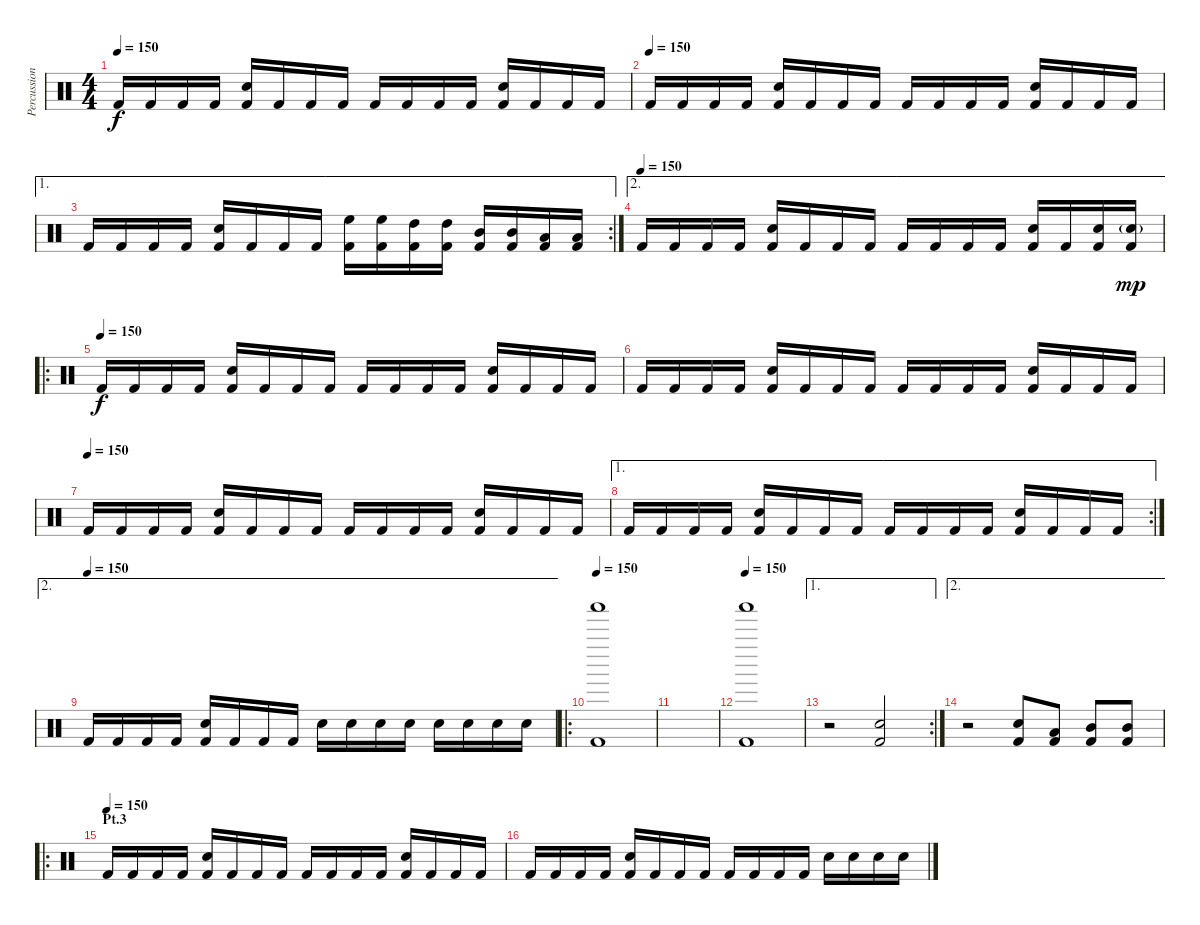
\track ("Percussion" "Percussion") {instrument percussion}
\staff {score}
\articulation defaults
\ts (4 4)
\tempo 150
\clef neutral
\ks c "Kick (hit) 2".16{dy f} "Kick (hit) 2".16 "Kick (hit) 2".16 "Kick (hit) 2".16
("Snare (hit) 2" "Kick (hit) 2").16 "Kick (hit) 2".16 "Kick (hit) 2".16 "Kick (hit) 2".16 "Kick (hit) 2".16 "Kick (hit) 2".16 "Kick (hit) 2".16 "Kick (hit) 2".16 ("Snare (hit) 2" "Kick (hit) 2").16 "Kick (hit) 2".16 "Kick (hit) 2".16 "Kick (hit) 2".16 |
\tempo (150)
"Kick (hit) 2".16 "Kick (hit) 2".16 "Kick (hit) 2".16 "Kick (hit) 2".16 ("Snare (hit) 2" "Kick (hit) 2").16 "Kick (hit) 2".16 "Kick (hit) 2".16 "Kick (hit) 2".16 "Kick (hit) 2".16 "Kick (hit) 2".16 "Kick (hit) 2".16 "Kick (hit) 2".16 ("Snare (hit) 2" "Kick (hit) 2").16 "Kick (hit) 2".16 "Kick (hit) 2".16 "Kick (hit) 2".16 |
\ae 1
\rc 2 "Kick (hit) 2".16 "Kick (hit) 2".16 "Kick (hit) 2".16 "Kick (hit) 2".16
("Snare (hit) 2" "Kick (hit) 2").16 "Kick (hit) 2".16 "Kick (hit) 2".16 "Kick (hit) 2".16 ("High Floor Tom (hit)" "Kick (hit) 2").16 ("High Floor Tom (hit)" "Kick (hit) 2").16 ("High Tom (hit)" "Kick (hit) 2").16 ("High Tom (hit)" "Kick (hit) 2").16 ("Mid Tom (hit)" "Kick (hit) 2").16 ("Mid Tom (hit)" "Kick (hit) 2").16 ("Low Tom (hit)" "Kick (hit) 2").16 ("Low Tom (hit)" "Kick (hit) 2").16 |
\ae 2
\tempo (150)
"Kick (hit) 2".16 "Kick (hit) 2".16 "Kick (hit) 2".16 "Kick (hit) 2".16 ("Snare (hit) 2" "Kick (hit) 2").16 "Kick (hit) 2".16 "Kick (hit) 2".16 "Kick (hit) 2".16 "Kick (hit) 2".16 "Kick (hit) 2".16 "Kick (hit) 2".16 "Kick (hit) 2".16 ("Snare (hit) 2" "Kick (hit) 2").16 "Kick (hit) 2".16 ("Snare (hit) 2" "Kick (hit) 2").16 ("Snare (hit) 2"{g} "Kick (hit) 2").16{dy mp} |
\ro
\tempo (150)
"Kick (hit) 2".16{dy f} "Kick (hit) 2".16 "Kick (hit) 2".16 "Kick (hit) 2".16 ("Snare (hit) 2" "Kick (hit) 2").16 "Kick (hit) 2".16 "Kick (hit) 2".16 "Kick (hit) 2".16 "Kick (hit) 2".16 "Kick (hit) 2".16 "Kick (hit) 2".16 "Kick (hit) 2".16 ("Snare (hit) 2" "Kick (hit) 2").16 "Kick (hit) 2".16 "Kick (hit) 2".16 "Kick (hit) 2".16 |
"Kick (hit) 2".16 "Kick (hit) 2".16 "Kick (hit) 2".16 "Kick (hit) 2".16 ("Snare (hit) 2" "Kick (hit) 2").16 "Kick (hit) 2".16 "Kick (hit) 2".16 "Kick (hit) 2".16 "Kick (hit) 2".16 "Kick (hit) 2".16 "Kick (hit) 2".16 "Kick (hit) 2".16 ("Snare (hit) 2" "Kick (hit) 2").16 "Kick (hit) 2".16 "Kick (hit) 2".16 "Kick (hit) 2".16 |
\tempo (150)
"Kick (hit) 2".16 "Kick (hit) 2".16 "Kick (hit) 2".16 "Kick (hit) 2".16 ("Snare (hit) 2" "Kick (hit) 2").16 "Kick (hit) 2".16 "Kick (hit) 2".16 "Kick (hit) 2".16 "Kick (hit) 2".16 "Kick (hit) 2".16 "Kick (hit) 2".16 "Kick (hit) 2".16 ("Snare (hit) 2" "Kick (hit) 2").16 "Kick (hit) 2".16 "Kick (hit) 2".16 "Kick (hit) 2".16 |
\ae 1
\rc 2 "Kick (hit) 2".16 "Kick (hit) 2".16 "Kick (hit) 2".16 "Kick (hit) 2".16
("Snare (hit) 2" "Kick (hit) 2").16 "Kick (hit) 2".16 "Kick (hit) 2".16 "Kick (hit) 2".16 "Kick (hit) 2".16 "Kick (hit) 2".16 "Kick (hit) 2".16 "Kick (hit) 2".16 ("Snare (hit) 2" "Kick (hit) 2").16 "Kick (hit) 2".16 "Kick (hit) 2".16 "Kick (hit) 2".16 |
\ae 2
\tempo (150)
"Kick (hit) 2".16 "Kick (hit) 2".16 "Kick (hit) 2".16 "Kick (hit) 2".16 ("Snare (hit) 2" "Kick (hit) 2").16 "Kick (hit) 2".16 "Kick (hit) 2".16 "Kick (hit) 2".16 "Snare (hit) 2".16 "Snare (hit) 2".16 "Snare (hit) 2".16 "Snare (hit) 2".16 "Snare (hit) 2".16 "Snare (hit) 2".16 "Snare (hit) 2".16 "Snare (hit) 2".16 |
\ro
\tempo 150
("Shaker (hit)" "Kick (hit) 2").1 |
|
\tempo 150
("Shaker (hit)" "Kick (hit) 2").1 |
\ae 1
\rc 2
r.2 ("Snare (hit) 2" "Kick (hit) 2").2 |
\ae 2
r.2 ("Snare (hit) 2" "Kick (hit) 2").8 ("Low Tom (hit)" "Kick (hit) 2").8 ("Mid Tom (hit)" "Kick (hit) 2").8 ("Mid Tom (hit)" "Kick (hit) 2").8 |
\ro
\section ("" "Pt.3")
\tempo (150)
"Kick (hit) 2".16 "Kick (hit) 2".16 "Kick (hit) 2".16 "Kick (hit) 2".16 ("Snare (hit) 2" "Kick (hit) 2").16 "Kick (hit) 2".16 "Kick (hit) 2".16 "Kick (hit) 2".16 "Kick (hit) 2".16 "Kick (hit) 2".16 "Kick (hit) 2".16 "Kick (hit) 2".16 ("Snare (hit) 2" "Kick (hit) 2").16 "Kick (hit) 2".16 "Kick (hit) 2".16 "Kick (hit) 2".16 |
"Kick (hit) 2".16 "Kick (hit) 2".16 "Kick (hit) 2".16 "Kick (hit) 2".16 ("Snare (hit) 2" "Kick (hit) 2").16 "Kick (hit) 2".16 "Kick (hit) 2".16 "Kick (hit) 2".16 "Kick (hit) 2".16 "Kick (hit) 2".16 "Kick (hit) 2".16 "Kick (hit) 2".16 "Snare (hit) 2".16 "Snare (hit) 2".16 "Snare (hit) 2".16 "Snare (hit) 2".16
